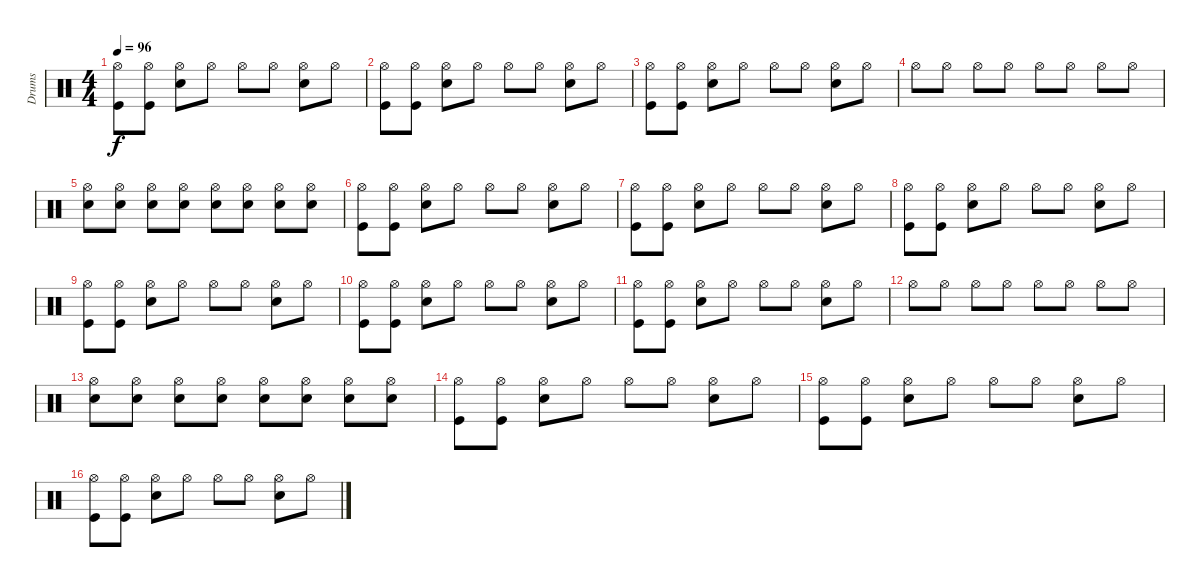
\track ("Drums" "Drums") {instrument percussion}
\staff {score}
\articulation defaults
\ts (4 4)
\tempo 96
\clef neutral
\ks c
("Hi-Hat (open)" "Kick (hit)").8{dy f} ("Hi-Hat (open)" "Kick (hit)").8 ("Hi-Hat (open)" "Electric Snare (hit)").8 "Hi-Hat (open)".8 "Hi-Hat (open)".8 "Hi-Hat (open)".8 ("Hi-Hat (open)" "Electric Snare (hit)").8 "Hi-Hat (open)".8 |
("Hi-Hat (open)" "Kick (hit)").8 ("Hi-Hat (open)" "Kick (hit)").8 ("Hi-Hat (open)" "Electric Snare (hit)").8 "Hi-Hat (open)".8 "Hi-Hat (open)".8 "Hi-Hat (open)".8 ("Hi-Hat (open)" "Electric Snare (hit)").8 "Hi-Hat (open)".8 |
("Hi-Hat (open)" "Kick (hit)").8 ("Hi-Hat (open)" "Kick (hit)").8 ("Hi-Hat (open)" "Electric Snare (hit)").8 "Hi-Hat (open)".8 "Hi-Hat (open)".8 "Hi-Hat (open)".8 ("Hi-Hat (open)" "Electric Snare (hit)").8 "Hi-Hat (open)".8 |
"Hi-Hat (open)".8 "Hi-Hat (open)".8 "Hi-Hat (open)".8 "Hi-Hat (open)".8 "Hi-Hat (open)".8 "Hi-Hat (open)".8 "Hi-Hat (open)".8 "Hi-Hat (open)".8 |
("Electric Snare (hit)" "Hi-Hat (open)").8 ("Electric Snare (hit)" "Hi-Hat (open)").8 ("Electric Snare (hit)" "Hi-Hat (open)").8 ("Electric Snare (hit)" "Hi-Hat (open)").8 ("Electric Snare (hit)" "Hi-Hat (open)").8 ("Electric Snare (hit)" "Hi-Hat (open)").8 ("Electric Snare (hit)" "Hi-Hat (open)").8 ("Electric Snare (hit)" "Hi-Hat (open)").8 |
("Hi-Hat (open)" "Kick (hit)").8 ("Hi-Hat (open)" "Kick (hit)").8 ("Hi-Hat (open)" "Electric Snare (hit)").8 "Hi-Hat (open)".8 "Hi-Hat (open)".8 "Hi-Hat (open)".8 ("Hi-Hat (open)" "Electric Snare (hit)").8 "Hi-Hat (open)".8 |
("Hi-Hat (open)" "Kick (hit)").8 ("Hi-Hat (open)" "Kick (hit)").8 ("Hi-Hat (open)" "Electric Snare (hit)").8 "Hi-Hat (open)".8 "Hi-Hat (open)".8 "Hi-Hat (open)".8 ("Hi-Hat (open)" "Electric Snare (hit)").8 "Hi-Hat (open)".8 |
("Hi-Hat (open)" "Kick (hit)").8 ("Hi-Hat (open)" "Kick (hit)").8 ("Hi-Hat (open)" "Electric Snare (hit)").8 "Hi-Hat (open)".8 "Hi-Hat (open)".8 "Hi-Hat (open)".8 ("Hi-Hat (open)" "Electric Snare (hit)").8 "Hi-Hat (open)".8 |
("Hi-Hat (open)" "Kick (hit)").8 ("Hi-Hat (open)" "Kick (hit)").8 ("Hi-Hat (open)" "Electric Snare (hit)").8 "Hi-Hat (open)".8 "Hi-Hat (open)".8 "Hi-Hat (open)".8 ("Hi-Hat (open)" "Electric Snare (hit)").8 "Hi-Hat (open)".8 |
("Hi-Hat (open)" "Kick (hit)").8 ("Hi-Hat (open)" "Kick (hit)").8 ("Hi-Hat (open)" "Electric Snare (hit)").8 "Hi-Hat (open)".8 "Hi-Hat (open)".8 "Hi-Hat (open)".8 ("Hi-Hat (open)" "Electric Snare (hit)").8 "Hi-Hat (open)".8 |
("Hi-Hat (open)" "Kick (hit)").8 ("Hi-Hat (open)" "Kick (hit)").8 ("Hi-Hat (open)" "Electric Snare (hit)").8 "Hi-Hat (open)".8 "Hi-Hat (open)".8 "Hi-Hat (open)".8 ("Hi-Hat (open)" "Electric Snare (hit)").8 "Hi-Hat (open)".8 |
"Hi-Hat (open)".8 "Hi-Hat (open)".8 "Hi-Hat (open)".8 "Hi-Hat (open)".8 "Hi-Hat (open)".8 "Hi-Hat (open)".8 "Hi-Hat (open)".8 "Hi-Hat (open)".8 |
("Electric Snare (hit)" "Hi-Hat (open)").8 ("Electric Snare (hit)" "Hi-Hat (open)").8 ("Electric Snare (hit)" "Hi-Hat (open)").8 ("Electric Snare (hit)" "Hi-Hat (open)").8 ("Electric Snare (hit)" "Hi-Hat (open)").8 ("Electric Snare (hit)" "Hi-Hat (open)").8 ("Electric Snare (hit)" "Hi-Hat (open)").8 ("Electric Snare (hit)" "Hi-Hat (open)").8 |
("Hi-Hat (open)" "Kick (hit)").8 ("Hi-Hat (open)" "Kick (hit)").8 ("Hi-Hat (open)" "Electric Snare (hit)").8 "Hi-Hat (open)".8 "Hi-Hat (open)".8 "Hi-Hat (open)".8 ("Hi-Hat (open)" "Electric Snare (hit)").8 "Hi-Hat (open)".8 |
("Hi-Hat (open)" "Kick (hit)").8 ("Hi-Hat (open)" "Kick (hit)").8 ("Hi-Hat (open)" "Electric Snare (hit)").8 "Hi-Hat (open)".8 "Hi-Hat (open)".8 "Hi-Hat (open)".8 ("Hi-Hat (open)" "Electric Snare (hit)").8 "Hi-Hat (open)".8 |
("Hi-Hat (open)" "Kick (hit)").8 ("Hi-Hat (open)" "Kick (hit)").8 ("Hi-Hat (open)" "Electric Snare (hit)").8 "Hi-Hat (open)".8 "Hi-Hat (open)".8 "Hi-Hat (open)".8 ("Hi-Hat (open)" "Electric Snare (hit)").8 "Hi-Hat (open)".8
